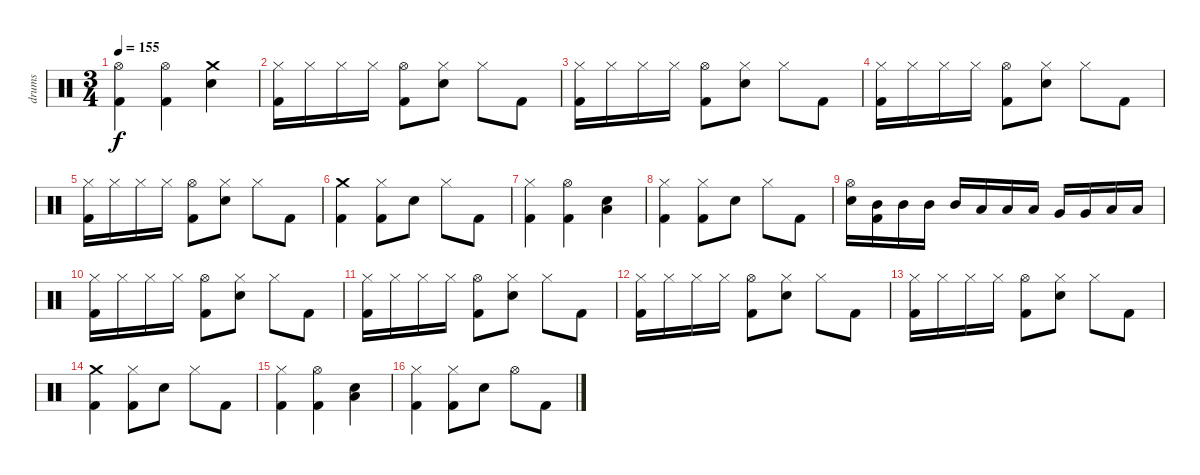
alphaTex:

\track ("drums" "drums") {instrument percussion}
\staff {score}
\articulation defaults
\ts (3 4)
\tempo 155
\clef neutral
\ks c
("Hi-Hat (open)" "Kick (hit) 2").4{dy f} ("Hi-Hat (open)" "Kick (hit) 2").4 ("Crash medium (hit)" "Electric Snare (hit)").4 |
("Hi-Hat (closed)" "Kick (hit) 2").16 "Hi-Hat (closed)".16 "Hi-Hat (closed)".16 "Hi-Hat (closed)".16 ("Hi-Hat (open)" "Kick (hit) 2").8 ("Hi-Hat (closed)" "Electric Snare (hit)").8 "Hi-Hat (closed)".8 "Kick (hit) 2".8 |
("Hi-Hat (closed)" "Kick (hit) 2").16 "Hi-Hat (closed)".16 "Hi-Hat (closed)".16 "Hi-Hat (closed)".16 ("Hi-Hat (open)" "Kick (hit) 2").8 ("Hi-Hat (closed)" "Electric Snare (hit)").8 "Hi-Hat (closed)".8 "Kick (hit) 2".8 |
("Hi-Hat (closed)" "Kick (hit) 2").16 "Hi-Hat (closed)".16 "Hi-Hat (closed)".16 "Hi-Hat (closed)".16 ("Hi-Hat (open)" "Kick (hit) 2").8 ("Hi-Hat (closed)" "Electric Snare (hit)").8 "Hi-Hat (closed)".8 "Kick (hit) 2".8 |
("Hi-Hat (closed)" "Kick (hit) 2").16 "Hi-Hat (closed)".16 "Hi-Hat (closed)".16 "Hi-Hat (closed)".16 ("Hi-Hat (open)" "Kick (hit) 2").8 ("Hi-Hat (closed)" "Electric Snare (hit)").8 "Hi-Hat (closed)".8 "Kick (hit) 2".8 |
("Crash medium (hit)" "Kick (hit) 2").4 ("Hi-Hat (closed)" "Kick (hit) 2").8 "Electric Snare (hit)".8 "Hi-Hat (closed)".8 "Kick (hit) 2".8 |
("Hi-Hat (closed)" "Kick (hit) 2").4 ("Hi-Hat (open)" "Kick (hit) 2").4 ("Low Floor Tom (hit)" "Electric Snare (hit)").4 |
("Hi-Hat (closed)" "Kick (hit) 2").4 ("Hi-Hat (closed)" "Kick (hit) 2").8 "Electric Snare (hit)".8 "Hi-Hat (closed)".8 "Kick (hit) 2".8 |
("Hi-Hat (open)" "Electric Snare (hit)").16 ("Mid Tom (hit)" "Kick (hit) 2").16 "Mid Tom (hit)".16 "Mid Tom (hit)".16 "Mid Tom (hit)".16 "Low Tom (hit)".16 "Low Tom (hit)".16 "Low Tom (hit)".16 "Very Low Tom (hit)".16 "Very Low Tom (hit)".16 "Low Floor Tom (hit)".16 "Low Floor Tom (hit)".16 |
("Hi-Hat (closed)" "Kick (hit) 2").16 "Hi-Hat (closed)".16 "Hi-Hat (closed)".16 "Hi-Hat (closed)".16 ("Hi-Hat (open)" "Kick (hit) 2").8 ("Hi-Hat (closed)" "Electric Snare (hit)").8 "Hi-Hat (closed)".8 "Kick (hit) 2".8 |
("Hi-Hat (closed)" "Kick (hit) 2").16 "Hi-Hat (closed)".16 "Hi-Hat (closed)".16 "Hi-Hat (closed)".16 ("Hi-Hat (open)" "Kick (hit) 2").8 ("Hi-Hat (closed)" "Electric Snare (hit)").8 "Hi-Hat (closed)".8 "Kick (hit) 2".8 |
("Hi-Hat (closed)" "Kick (hit) 2").16 "Hi-Hat (closed)".16 "Hi-Hat (closed)".16 "Hi-Hat (closed)".16 ("Hi-Hat (open)" "Kick (hit) 2").8 ("Hi-Hat (closed)" "Electric Snare (hit)").8 "Hi-Hat (closed)".8 "Kick (hit) 2".8 |
("Hi-Hat (closed)" "Kick (hit) 2").16 "Hi-Hat (closed)".16 "Hi-Hat (closed)".16 "Hi-Hat (closed)".16 ("Hi-Hat (open)" "Kick (hit) 2").8 ("Hi-Hat (closed)" "Electric Snare (hit)").8 "Hi-Hat (closed)".8 "Kick (hit) 2".8 |
("Crash medium (hit)" "Kick (hit) 2").4 ("Hi-Hat (closed)" "Kick (hit) 2").8 "Electric Snare (hit)".8 "Hi-Hat (closed)".8 "Kick (hit) 2".8 |
("Hi-Hat (closed)" "Kick (hit) 2").4 ("Hi-Hat (open)" "Kick (hit) 2").4 ("Low Floor Tom (hit)" "Electric Snare (hit)").4 |
("Hi-Hat (closed)" "Kick (hit) 2").4 ("Hi-Hat (closed)" "Kick (hit) 2").8 "Electric Snare (hit)".8 "Hi-Hat (open)".8 "Kick (hit) 2".8
